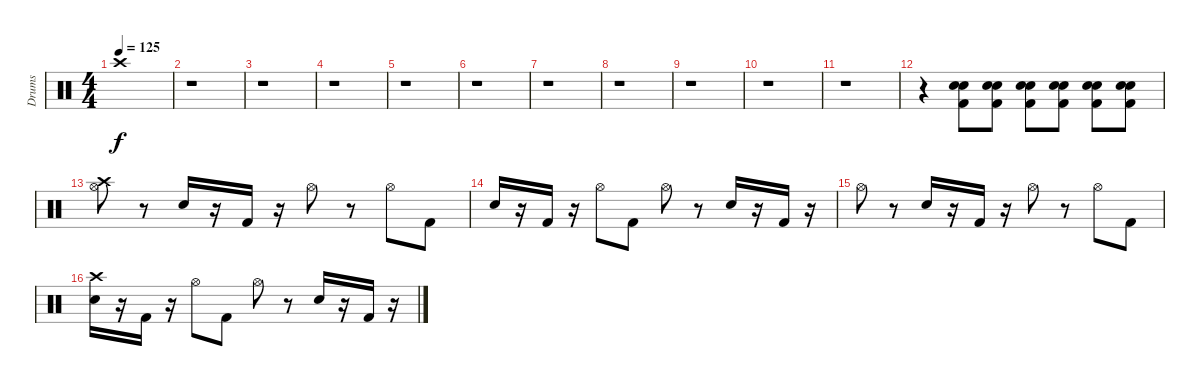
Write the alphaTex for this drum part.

\track ("Drums" "Drums") {instrument percussion}
\staff {score}
\articulation defaults
\ts (4 4)
\tempo 125
\clef neutral
\ks c "Crash high (hit)".1{dy f}
|
r.1 |
r.1 |
r.1 |
r.1 |
r.1 |
r.1 |
r.1 |
r.1 |
r.1 |
r.1 |
r.4 ("Snare (hit) 2" "Kick (hit) 2" "Electric Snare (hit)").8 ("Snare (hit) 2" "Kick (hit) 2" "Electric Snare (hit)").8 ("Snare (hit) 2" "Kick (hit) 2" "Electric Snare (hit)").8 ("Snare (hit) 2" "Kick (hit) 2" "Electric Snare (hit)").8 ("Snare (hit) 2" "Kick (hit) 2" "Electric Snare (hit)").8 ("Snare (hit) 2" "Kick (hit) 2" "Electric Snare (hit)").8 |
("Hi-Hat (open)" "Crash high (hit)").8 r.8 "Snare (hit) 2".16 r.16 "Kick (hit) 2".16 r.16 "Hi-Hat (open)".8 r.8 "Hi-Hat (open)".8 "Kick (hit) 2".8 |
"Snare (hit) 2".16 r.16 "Kick (hit) 2".16 r.16 "Hi-Hat (open)".8 "Kick (hit) 2".8 "Hi-Hat (open)".8 r.8 "Snare (hit) 2".16 r.16 "Kick (hit) 2".16 r.16 |
"Hi-Hat (open)".8 r.8 "Snare (hit) 2".16 r.16 "Kick (hit) 2".16 r.16 "Hi-Hat (open)".8 r.8 "Hi-Hat (open)".8 "Kick (hit) 2".8 |
("Crash high (hit)" "Snare (hit) 2").16 r.16 "Kick (hit) 2".16 r.16 "Hi-Hat (open)".8 "Kick (hit) 2".8 "Hi-Hat (open)".8 r.8 "Snare (hit) 2".16 r.16 "Kick (hit) 2".16 r.16
